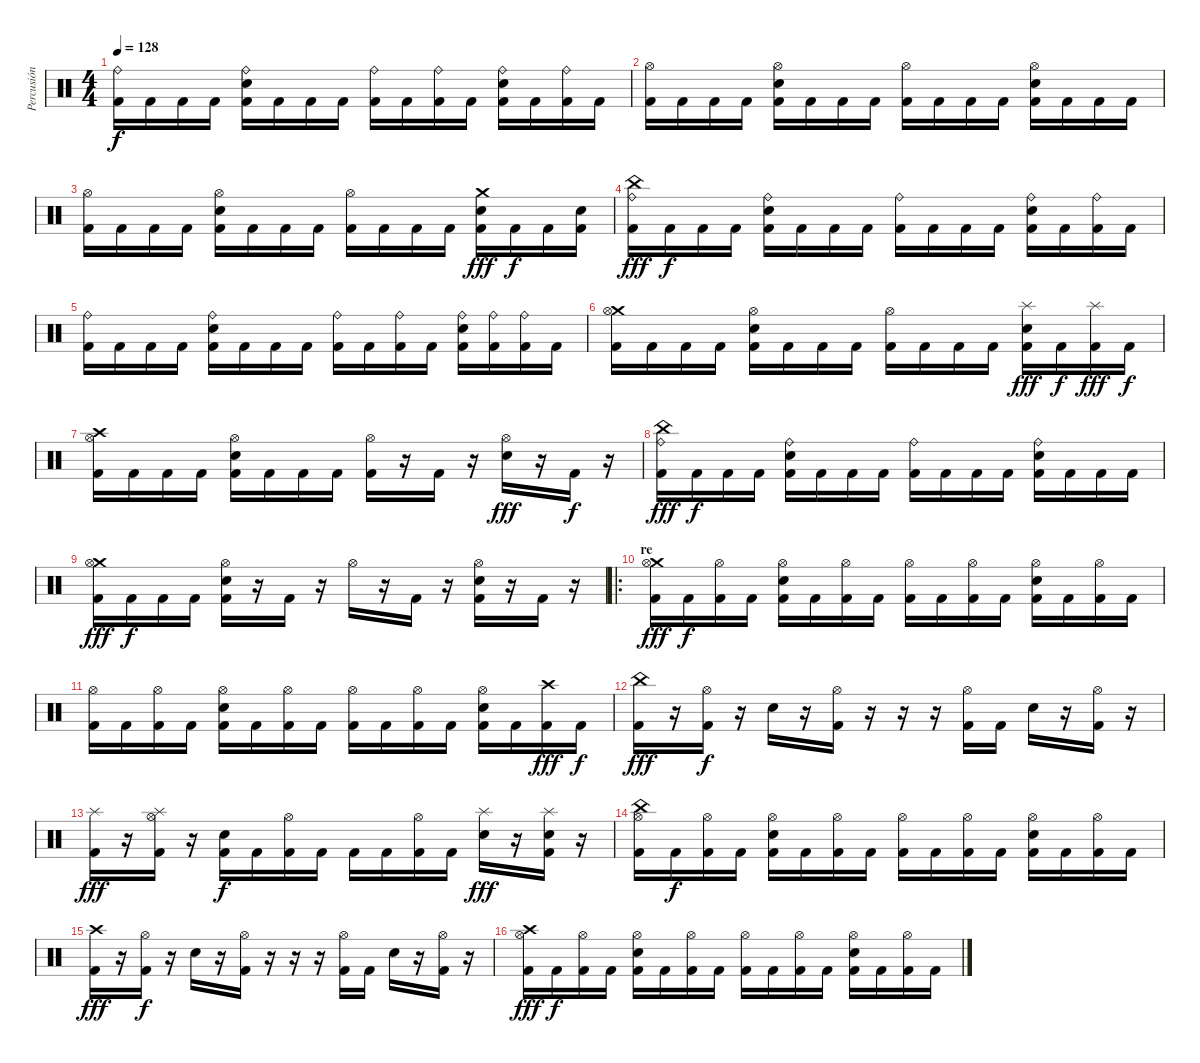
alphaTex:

\track ("Percusión" "Percusión") {instrument percussion}
\staff {score}
\articulation defaults
\ts (4 4)
\tempo 128
\clef neutral
\ks c
("Ride (bell)" "Kick (hit) 2").16{dy f} "Kick (hit) 2".16 "Kick (hit) 2".16 "Kick (hit) 2".16 ("Ride (bell)" "Kick (hit) 2" "Snare (hit) 2").16 "Kick (hit) 2".16 "Kick (hit) 2".16 "Kick (hit) 2".16 ("Ride (bell)" "Kick (hit) 2").16 "Kick (hit) 2".16 ("Ride (bell)" "Kick (hit) 2").16 "Kick (hit) 2".16 ("Ride (bell)" "Kick (hit) 2" "Snare (hit) 2").16 "Kick (hit) 2".16 ("Ride (bell)" "Kick (hit) 2").16 "Kick (hit) 2".16 |
("Hi-Hat (open)" "Kick (hit) 2").16 "Kick (hit) 2".16 "Kick (hit) 2".16 "Kick (hit) 2".16 ("Hi-Hat (open)" "Kick (hit) 2" "Snare (hit) 2").16 "Kick (hit) 2".16 "Kick (hit) 2".16 "Kick (hit) 2".16 ("Hi-Hat (open)" "Kick (hit) 2").16 "Kick (hit) 2".16 "Kick (hit) 2".16 "Kick (hit) 2".16 ("Hi-Hat (open)" "Kick (hit) 2" "Snare (hit) 2").16 "Kick (hit) 2".16 "Kick (hit) 2".16 "Kick (hit) 2".16 |
("Hi-Hat (open)" "Kick (hit) 2").16 "Kick (hit) 2".16 "Kick (hit) 2".16 "Kick (hit) 2".16 ("Hi-Hat (open)" "Kick (hit) 2" "Snare (hit) 2").16 "Kick (hit) 2".16 "Kick (hit) 2".16 "Kick (hit) 2".16 ("Hi-Hat (open)" "Kick (hit) 2").16 "Kick (hit) 2".16 "Kick (hit) 2".16 "Kick (hit) 2".16 ("Crash medium (hit)" "Kick (hit) 2" "Snare (hit) 2").16{dy fff} "Kick (hit) 2".16{dy f} "Kick (hit) 2".16 ("Kick (hit) 2" "Snare (hit) 2").16 |
("China (hit)" "Ride (bell)" "Kick (hit) 2").16{dy fff} "Kick (hit) 2".16{dy f} "Kick (hit) 2".16 "Kick (hit) 2".16 ("Ride (bell)" "Kick (hit) 2" "Snare (hit) 2").16 "Kick (hit) 2".16 "Kick (hit) 2".16 "Kick (hit) 2".16 ("Ride (bell)" "Kick (hit) 2").16 "Kick (hit) 2".16 "Kick (hit) 2".16 "Kick (hit) 2".16 ("Ride (bell)" "Kick (hit) 2" "Snare (hit) 2").16 "Kick (hit) 2".16 ("Ride (bell)" "Kick (hit) 2").16 "Kick (hit) 2".16 |
("Ride (bell)" "Kick (hit) 2").16 "Kick (hit) 2".16 "Kick (hit) 2".16 "Kick (hit) 2".16 ("Ride (bell)" "Kick (hit) 2" "Snare (hit) 2").16 "Kick (hit) 2".16 "Kick (hit) 2".16 "Kick (hit) 2".16 ("Ride (bell)" "Kick (hit) 2").16 "Kick (hit) 2".16 ("Ride (bell)" "Kick (hit) 2").16 "Kick (hit) 2".16 ("Ride (bell)" "Kick (hit) 2" "Snare (hit) 2").16 ("Ride (bell)" "Kick (hit) 2").16 ("Ride (bell)" "Kick (hit) 2").16 "Kick (hit) 2".16 |
("Crash medium (hit)" "Hi-Hat (open)" "Kick (hit) 2").16 "Kick (hit) 2".16 "Kick (hit) 2".16 "Kick (hit) 2".16 ("Hi-Hat (open)" "Kick (hit) 2" "Snare (hit) 2").16 "Kick (hit) 2".16 "Kick (hit) 2".16 "Kick (hit) 2".16 ("Hi-Hat (open)" "Kick (hit) 2").16 "Kick (hit) 2".16 "Kick (hit) 2".16 "Kick (hit) 2".16 ("Splash (hit)" "Kick (hit) 2" "Snare (hit) 2").16{dy fff} "Kick (hit) 2".16{dy f} ("Splash (hit)" "Kick (hit) 2").16{dy fff} "Kick (hit) 2".16{dy f} |
("Crash high (hit)" "Hi-Hat (open)" "Kick (hit) 2").16 "Kick (hit) 2".16 "Kick (hit) 2".16 "Kick (hit) 2".16 ("Hi-Hat (open)" "Kick (hit) 2" "Snare (hit) 2").16 "Kick (hit) 2".16 "Kick (hit) 2".16 "Kick (hit) 2".16 ("Hi-Hat (open)" "Kick (hit) 2").16 r.16 "Kick (hit) 2".16 r.16 ("Hi-Hat (open)" "Snare (hit) 2").16{dy fff} r.16 "Kick (hit) 2".16{dy f} r.16 |
("China (hit)" "Ride (bell)" "Kick (hit) 2").16{dy fff} "Kick (hit) 2".16{dy f} "Kick (hit) 2".16 "Kick (hit) 2".16 ("Ride (bell)" "Kick (hit) 2" "Snare (hit) 2").16 "Kick (hit) 2".16 "Kick (hit) 2".16 "Kick (hit) 2".16 ("Ride (bell)" "Kick (hit) 2").16 "Kick (hit) 2".16 "Kick (hit) 2".16 "Kick (hit) 2".16 ("Ride (bell)" "Kick (hit) 2" "Snare (hit) 2").16 "Kick (hit) 2".16 "Kick (hit) 2".16 "Kick (hit) 2".16 |
("Crash medium (hit)" "Hi-Hat (open)" "Kick (hit) 2").16{dy fff} "Kick (hit) 2".16{dy f} "Kick (hit) 2".16 "Kick (hit) 2".16 ("Hi-Hat (open)" "Kick (hit) 2" "Snare (hit) 2").16 r.16 "Kick (hit) 2".16 r.16 "Hi-Hat (open)".16 r.16 "Kick (hit) 2".16 r.16 ("Hi-Hat (open)" "Kick (hit) 2" "Snare (hit) 2").16 r.16 "Kick (hit) 2".16 r.16 |
\ro
\section ("" "re")
("Crash medium (hit)" "Hi-Hat (open)" "Kick (hit) 2").16{dy fff} "Kick (hit) 2".16{dy f} ("Hi-Hat (open)" "Kick (hit) 2").16 "Kick (hit) 2".16 ("Hi-Hat (open)" "Kick (hit) 2" "Snare (hit) 2").16 "Kick (hit) 2".16 ("Hi-Hat (open)" "Kick (hit) 2").16 "Kick (hit) 2".16 ("Hi-Hat (open)" "Kick (hit) 2").16 "Kick (hit) 2".16 ("Hi-Hat (open)" "Kick (hit) 2").16 "Kick (hit) 2".16 ("Hi-Hat (open)" "Kick (hit) 2" "Snare (hit) 2").16 "Kick (hit) 2".16 ("Hi-Hat (open)" "Kick (hit) 2").16 "Kick (hit) 2".16 |
("Hi-Hat (open)" "Kick (hit) 2").16 "Kick (hit) 2".16 ("Hi-Hat (open)" "Kick (hit) 2").16 "Kick (hit) 2".16 ("Hi-Hat (open)" "Kick (hit) 2" "Snare (hit) 2").16 "Kick (hit) 2".16 ("Hi-Hat (open)" "Kick (hit) 2").16 "Kick (hit) 2".16 ("Hi-Hat (open)" "Kick (hit) 2").16 "Kick (hit) 2".16 ("Hi-Hat (open)" "Kick (hit) 2").16 "Kick (hit) 2".16 ("Hi-Hat (open)" "Kick (hit) 2" "Snare (hit) 2").16 "Kick (hit) 2".16 ("Crash high (hit)" "Kick (hit) 2").16{dy fff} "Kick (hit) 2".16{dy f} |
("China (hit)" "Kick (hit) 2").16{dy fff} r.16 ("Hi-Hat (open)" "Kick (hit) 2").16{dy f} r.16 "Snare (hit) 2".16 r.16 ("Hi-Hat (open)" "Kick (hit) 2").16 r.16 r.16 r.16 ("Hi-Hat (open)" "Kick (hit) 2").16 "Kick (hit) 2".16 "Snare (hit) 2".16 r.16 ("Hi-Hat (open)" "Kick (hit) 2").16 r.16 |
("Splash (hit)" "Kick (hit) 2").16{dy fff} r.16 ("Splash (hit)" "Hi-Hat (open)" "Kick (hit) 2").16 r.16 ("Kick (hit) 2" "Snare (hit) 2").16{dy f} "Kick (hit) 2".16 ("Hi-Hat (open)" "Kick (hit) 2").16 "Kick (hit) 2".16 "Kick (hit) 2".16 "Kick (hit) 2".16 ("Hi-Hat (open)" "Kick (hit) 2").16 "Kick (hit) 2".16 ("Splash (hit)" "Snare (hit) 2").16{dy fff} r.16 ("Splash (hit)" "Kick (hit) 2" "Snare (hit) 2").16 r.16 |
("China (hit)" "Hi-Hat (open)" "Kick (hit) 2").16 "Kick (hit) 2".16{dy f} ("Hi-Hat (open)" "Kick (hit) 2").16 "Kick (hit) 2".16 ("Hi-Hat (open)" "Kick (hit) 2" "Snare (hit) 2").16 "Kick (hit) 2".16 ("Hi-Hat (open)" "Kick (hit) 2").16 "Kick (hit) 2".16 ("Hi-Hat (open)" "Kick (hit) 2").16 "Kick (hit) 2".16 ("Hi-Hat (open)" "Kick (hit) 2").16 "Kick (hit) 2".16 ("Hi-Hat (open)" "Kick (hit) 2" "Snare (hit) 2").16 "Kick (hit) 2".16 ("Hi-Hat (open)" "Kick (hit) 2").16 "Kick (hit) 2".16 |
("Crash high (hit)" "Kick (hit) 2").16{dy fff} r.16 ("Hi-Hat (open)" "Kick (hit) 2").16{dy f} r.16 "Snare (hit) 2".16 r.16 ("Hi-Hat (open)" "Kick (hit) 2").16 r.16 r.16 r.16 ("Hi-Hat (open)" "Kick (hit) 2").16 "Kick (hit) 2".16 "Snare (hit) 2".16 r.16 ("Hi-Hat (open)" "Kick (hit) 2").16 r.16 |
("Crash high (hit)" "Hi-Hat (open)" "Kick (hit) 2").16{dy fff} "Kick (hit) 2".16{dy f} ("Hi-Hat (open)" "Kick (hit) 2").16 "Kick (hit) 2".16 ("Hi-Hat (open)" "Kick (hit) 2" "Snare (hit) 2").16 "Kick (hit) 2".16 ("Hi-Hat (open)" "Kick (hit) 2").16 "Kick (hit) 2".16 ("Hi-Hat (open)" "Kick (hit) 2").16 "Kick (hit) 2".16 ("Hi-Hat (open)" "Kick (hit) 2").16 "Kick (hit) 2".16 ("Hi-Hat (open)" "Kick (hit) 2" "Snare (hit) 2").16 "Kick (hit) 2".16 ("Hi-Hat (open)" "Kick (hit) 2").16 "Kick (hit) 2".16
